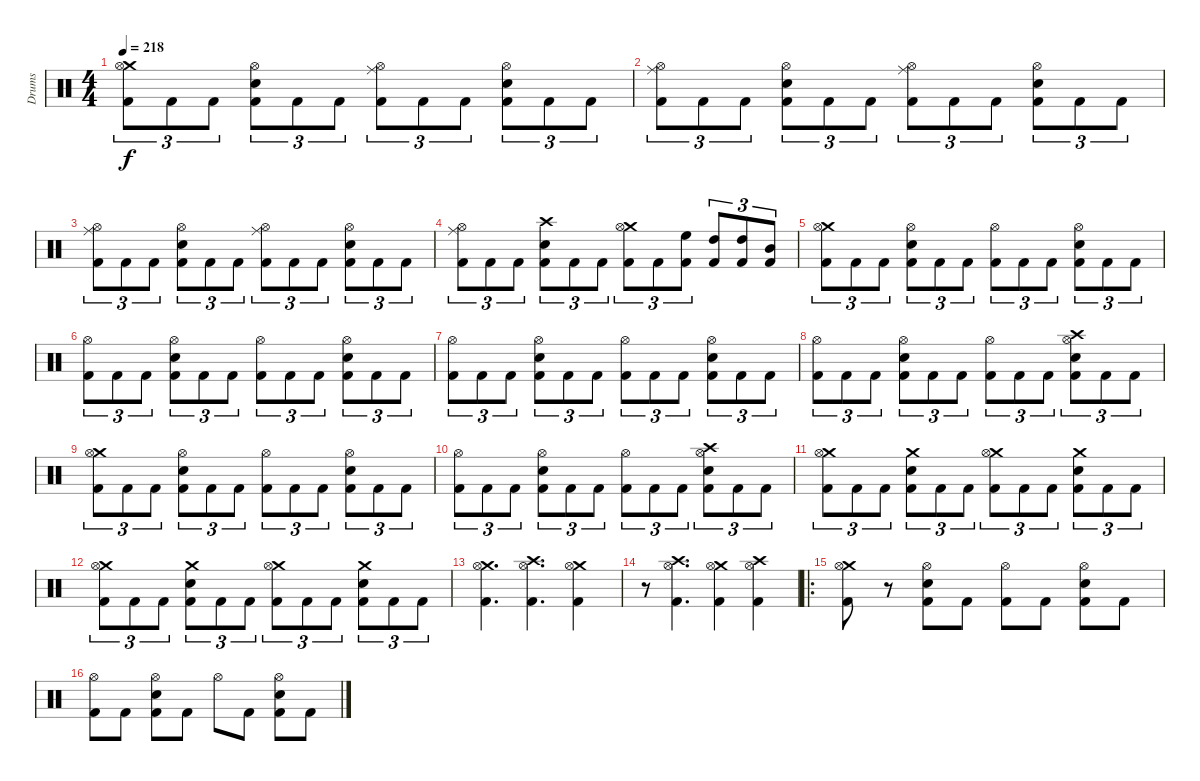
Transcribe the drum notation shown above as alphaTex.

\track ("Drums" "Drums") {instrument percussion}
\staff {score}
\articulation defaults
\ts (4 4)
\tempo 218
\clef neutral
\ks c
("Crash medium (hit)" "Hi-Hat (open)" "Kick (hit) 2").8{tu (3 2) dy f} "Kick (hit) 2".8{tu (3 2)} "Kick (hit) 2".8{tu (3 2)} ("Hi-Hat (open)" "Electric Snare (hit)" "Kick (hit) 2").8{tu (3 2)} "Kick (hit) 2".8{tu (3 2)} "Kick (hit) 2".8{tu (3 2)} ("Ride (middle)" "Hi-Hat (open)" "Kick (hit) 2").8{tu (3 2)} "Kick (hit) 2".8{tu (3 2)} "Kick (hit) 2".8{tu (3 2)} ("Hi-Hat (open)" "Electric Snare (hit)" "Kick (hit) 2").8{tu (3 2)} "Kick (hit) 2".8{tu (3 2)} "Kick (hit) 2".8{tu (3 2)} |
("Ride (middle)" "Hi-Hat (open)" "Kick (hit) 2").8{tu (3 2)} "Kick (hit) 2".8{tu (3 2)} "Kick (hit) 2".8{tu (3 2)} ("Hi-Hat (open)" "Electric Snare (hit)" "Kick (hit) 2").8{tu (3 2)} "Kick (hit) 2".8{tu (3 2)} "Kick (hit) 2".8{tu (3 2)} ("Ride (middle)" "Hi-Hat (open)" "Kick (hit) 2").8{tu (3 2)} "Kick (hit) 2".8{tu (3 2)} "Kick (hit) 2".8{tu (3 2)} ("Hi-Hat (open)" "Electric Snare (hit)" "Kick (hit) 2").8{tu (3 2)} "Kick (hit) 2".8{tu (3 2)} "Kick (hit) 2".8{tu (3 2)} |
("Ride (middle)" "Hi-Hat (open)" "Kick (hit) 2").8{tu (3 2)} "Kick (hit) 2".8{tu (3 2)} "Kick (hit) 2".8{tu (3 2)} ("Hi-Hat (open)" "Electric Snare (hit)" "Kick (hit) 2").8{tu (3 2)} "Kick (hit) 2".8{tu (3 2)} "Kick (hit) 2".8{tu (3 2)} ("Ride (middle)" "Hi-Hat (open)" "Kick (hit) 2").8{tu (3 2)} "Kick (hit) 2".8{tu (3 2)} "Kick (hit) 2".8{tu (3 2)} ("Hi-Hat (open)" "Electric Snare (hit)" "Kick (hit) 2").8{tu (3 2)} "Kick (hit) 2".8{tu (3 2)} "Kick (hit) 2".8{tu (3 2)} |
("Ride (middle)" "Hi-Hat (open)" "Kick (hit) 2").8{tu (3 2)} "Kick (hit) 2".8{tu (3 2)} "Kick (hit) 2".8{tu (3 2)} ("Crash high (hit)" "Electric Snare (hit)" "Kick (hit) 2").8{tu (3 2)} "Kick (hit) 2".8{tu (3 2)} "Kick (hit) 2".8{tu (3 2)} ("Crash medium (hit)" "Hi-Hat (open)" "Kick (hit) 2").8{tu (3 2)} "Kick (hit) 2".8{tu (3 2)} ("High Floor Tom (hit)" "Kick (hit) 2").8{tu (3 2)} ("High Tom (hit)" "Kick (hit) 2").8{tu (3 2)} ("High Tom (hit)" "Kick (hit) 2").8{tu (3 2)} ("Mid Tom (hit)" "Kick (hit) 2").8{tu (3 2)} |
("Crash medium (hit)" "Hi-Hat (open)" "Kick (hit) 2").8{tu (3 2)} "Kick (hit) 2".8{tu (3 2)} "Kick (hit) 2".8{tu (3 2)} ("Hi-Hat (open)" "Electric Snare (hit)" "Kick (hit) 2").8{tu (3 2)} "Kick (hit) 2".8{tu (3 2)} "Kick (hit) 2".8{tu (3 2)} ("Hi-Hat (open)" "Kick (hit) 2").8{tu (3 2)} "Kick (hit) 2".8{tu (3 2)} "Kick (hit) 2".8{tu (3 2)} ("Hi-Hat (open)" "Electric Snare (hit)" "Kick (hit) 2").8{tu (3 2)} "Kick (hit) 2".8{tu (3 2)} "Kick (hit) 2".8{tu (3 2)} |
("Hi-Hat (open)" "Kick (hit) 2").8{tu (3 2)} "Kick (hit) 2".8{tu (3 2)} "Kick (hit) 2".8{tu (3 2)} ("Hi-Hat (open)" "Electric Snare (hit)" "Kick (hit) 2").8{tu (3 2)} "Kick (hit) 2".8{tu (3 2)} "Kick (hit) 2".8{tu (3 2)} ("Hi-Hat (open)" "Kick (hit) 2").8{tu (3 2)} "Kick (hit) 2".8{tu (3 2)} "Kick (hit) 2".8{tu (3 2)} ("Hi-Hat (open)" "Electric Snare (hit)" "Kick (hit) 2").8{tu (3 2)} "Kick (hit) 2".8{tu (3 2)} "Kick (hit) 2".8{tu (3 2)} |
("Hi-Hat (open)" "Kick (hit) 2").8{tu (3 2)} "Kick (hit) 2".8{tu (3 2)} "Kick (hit) 2".8{tu (3 2)} ("Hi-Hat (open)" "Electric Snare (hit)" "Kick (hit) 2").8{tu (3 2)} "Kick (hit) 2".8{tu (3 2)} "Kick (hit) 2".8{tu (3 2)} ("Hi-Hat (open)" "Kick (hit) 2").8{tu (3 2)} "Kick (hit) 2".8{tu (3 2)} "Kick (hit) 2".8{tu (3 2)} ("Hi-Hat (open)" "Electric Snare (hit)" "Kick (hit) 2").8{tu (3 2)} "Kick (hit) 2".8{tu (3 2)} "Kick (hit) 2".8{tu (3 2)} |
("Hi-Hat (open)" "Kick (hit) 2").8{tu (3 2)} "Kick (hit) 2".8{tu (3 2)} "Kick (hit) 2".8{tu (3 2)} ("Hi-Hat (open)" "Electric Snare (hit)" "Kick (hit) 2").8{tu (3 2)} "Kick (hit) 2".8{tu (3 2)} "Kick (hit) 2".8{tu (3 2)} ("Hi-Hat (open)" "Kick (hit) 2").8{tu (3 2)} "Kick (hit) 2".8{tu (3 2)} "Kick (hit) 2".8{tu (3 2)} ("Crash high (hit)" "Hi-Hat (open)" "Electric Snare (hit)" "Kick (hit) 2").8{tu (3 2)} "Kick (hit) 2".8{tu (3 2)} "Kick (hit) 2".8{tu (3 2)} |
("Crash medium (hit)" "Hi-Hat (open)" "Kick (hit) 2").8{tu (3 2)} "Kick (hit) 2".8{tu (3 2)} "Kick (hit) 2".8{tu (3 2)} ("Hi-Hat (open)" "Electric Snare (hit)" "Kick (hit) 2").8{tu (3 2)} "Kick (hit) 2".8{tu (3 2)} "Kick (hit) 2".8{tu (3 2)} ("Hi-Hat (open)" "Kick (hit) 2").8{tu (3 2)} "Kick (hit) 2".8{tu (3 2)} "Kick (hit) 2".8{tu (3 2)} ("Hi-Hat (open)" "Electric Snare (hit)" "Kick (hit) 2").8{tu (3 2)} "Kick (hit) 2".8{tu (3 2)} "Kick (hit) 2".8{tu (3 2)} |
("Hi-Hat (open)" "Kick (hit) 2").8{tu (3 2)} "Kick (hit) 2".8{tu (3 2)} "Kick (hit) 2".8{tu (3 2)} ("Hi-Hat (open)" "Electric Snare (hit)" "Kick (hit) 2").8{tu (3 2)} "Kick (hit) 2".8{tu (3 2)} "Kick (hit) 2".8{tu (3 2)} ("Hi-Hat (open)" "Kick (hit) 2").8{tu (3 2)} "Kick (hit) 2".8{tu (3 2)} "Kick (hit) 2".8{tu (3 2)} ("Crash high (hit)" "Hi-Hat (open)" "Electric Snare (hit)" "Kick (hit) 2").8{tu (3 2)} "Kick (hit) 2".8{tu (3 2)} "Kick (hit) 2".8{tu (3 2)} |
("Crash medium (hit)" "Hi-Hat (open)" "Kick (hit) 2").8{tu (3 2)} "Kick (hit) 2".8{tu (3 2)} "Kick (hit) 2".8{tu (3 2)} ("Crash medium (hit)" "Electric Snare (hit)" "Kick (hit) 2").8{tu (3 2)} "Kick (hit) 2".8{tu (3 2)} "Kick (hit) 2".8{tu (3 2)} ("Crash medium (hit)" "Hi-Hat (open)" "Kick (hit) 2").8{tu (3 2)} "Kick (hit) 2".8{tu (3 2)} "Kick (hit) 2".8{tu (3 2)} ("Crash medium (hit)" "Electric Snare (hit)" "Kick (hit) 2").8{tu (3 2)} "Kick (hit) 2".8{tu (3 2)} "Kick (hit) 2".8{tu (3 2)} |
("Crash medium (hit)" "Hi-Hat (open)" "Kick (hit) 2").8{tu (3 2)} "Kick (hit) 2".8{tu (3 2)} "Kick (hit) 2".8{tu (3 2)} ("Crash medium (hit)" "Electric Snare (hit)" "Kick (hit) 2").8{tu (3 2)} "Kick (hit) 2".8{tu (3 2)} "Kick (hit) 2".8{tu (3 2)} ("Crash medium (hit)" "Hi-Hat (open)" "Kick (hit) 2").8{tu (3 2)} "Kick (hit) 2".8{tu (3 2)} "Kick (hit) 2".8{tu (3 2)} ("Crash medium (hit)" "Electric Snare (hit)" "Kick (hit) 2").8{tu (3 2)} "Kick (hit) 2".8{tu (3 2)} "Kick (hit) 2".8{tu (3 2)} |
("Crash medium (hit)" "Hi-Hat (open)" "Kick (hit) 2").4{d} ("Crash high (hit)" "Hi-Hat (open)" "Kick (hit) 2").4{d} ("Crash medium (hit)" "Hi-Hat (open)" "Kick (hit) 2").4 |
r.8 ("Crash high (hit)" "Hi-Hat (open)" "Kick (hit) 2").4{d} ("Crash medium (hit)" "Hi-Hat (open)" "Kick (hit) 2").4 ("Crash high (hit)" "Hi-Hat (open)" "Kick (hit) 2").4 |
\ro
("Crash medium (hit)" "Hi-Hat (open)" "Kick (hit) 2").8 r.8 ("Hi-Hat (open)" "Electric Snare (hit)" "Kick (hit) 2").8 "Kick (hit) 2".8 ("Hi-Hat (open)" "Kick (hit) 2").8 "Kick (hit) 2".8 ("Hi-Hat (open)" "Electric Snare (hit)" "Kick (hit) 2").8 "Kick (hit) 2".8 |
("Hi-Hat (open)" "Kick (hit) 2").8 "Kick (hit) 2".8 ("Hi-Hat (open)" "Electric Snare (hit)" "Kick (hit) 2").8 "Kick (hit) 2".8 "Hi-Hat (open)".8 "Kick (hit) 2".8 ("Hi-Hat (open)" "Electric Snare (hit)" "Kick (hit) 2").8 "Kick (hit) 2".8
